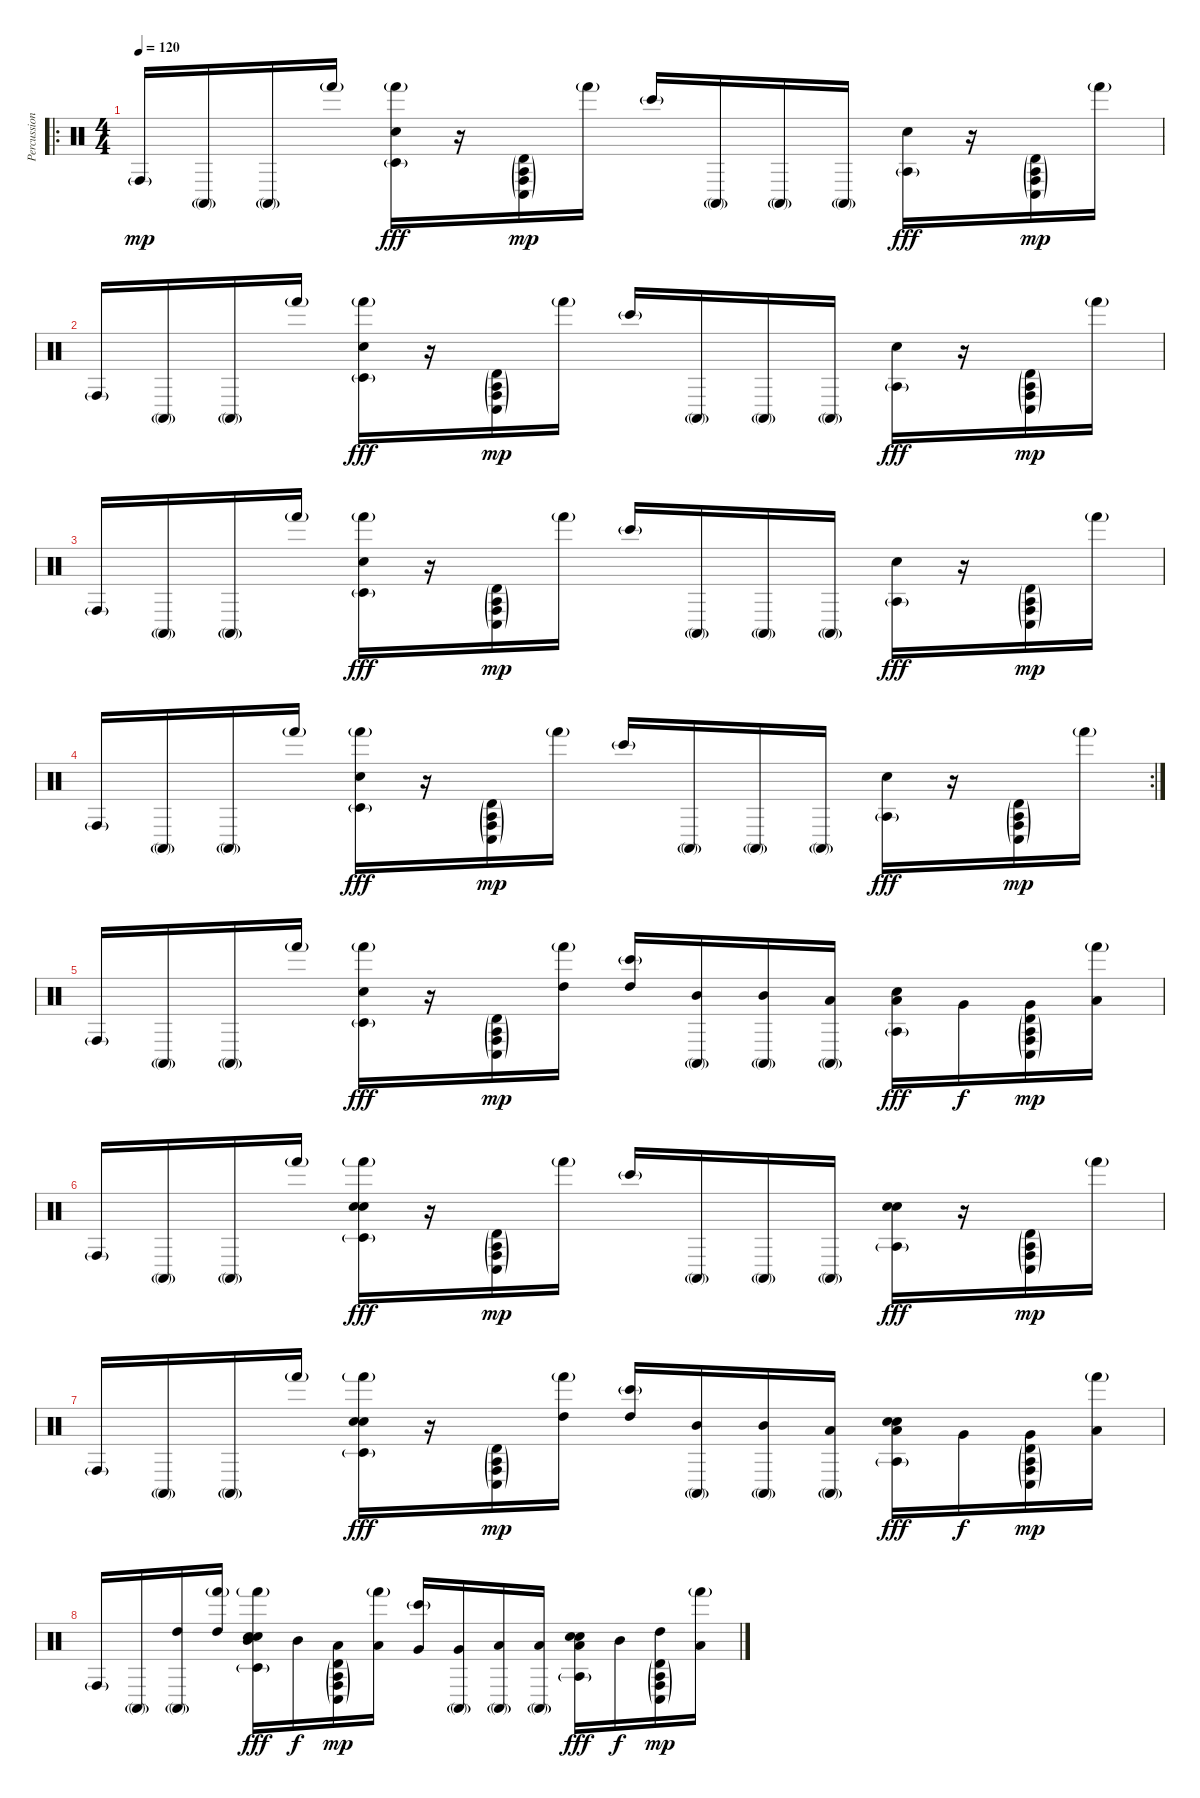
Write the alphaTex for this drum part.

\track ("Percussions" "Percussion") {instrument percussion}
\staff {score}
\articulation defaults
\ro
\ts (4 4)
\tempo 120
\clef neutral
\ks c "Conga high (hit)"{g}.16{dy mp} "Conga high (mute)"{g}.16 "Conga high (mute)"{g}.16 "Hand (hit)"{g}.16
("Hand (hit)"{g} "Timbale low (hit)"{g} "Hand Clap (hit)").16{dy fff} r.16 ("Agogo tow (hit)"{g} "Conga high (hit)"{g} "Conga low (hit)"{g} "Timbale high (hit)"{g}).16{dy mp} "Hand (hit)"{g}.16 "Bongo High (hit)"{g}.16 "Conga high (mute)"{g}.16 "Conga high (mute)"{g}.16 "Conga high (mute)"{g}.16 ("Agogo tow (hit)"{g} "Hand Clap (hit)").16{dy fff} r.16 ("Agogo tow (hit)"{g} "Conga high (hit)"{g} "Conga low (hit)"{g} "Timbale high (hit)"{g}).16{dy mp} "Hand (hit)"{g}.16 |
"Conga high (hit)"{g}.16 "Conga high (mute)"{g}.16 "Conga high (mute)"{g}.16 "Hand (hit)"{g}.16 ("Hand (hit)"{g} "Timbale low (hit)"{g} "Hand Clap (hit)").16{dy fff} r.16 ("Agogo tow (hit)"{g} "Conga high (hit)"{g} "Conga low (hit)"{g} "Timbale high (hit)"{g}).16{dy mp} "Hand (hit)"{g}.16 "Bongo High (hit)"{g}.16 "Conga high (mute)"{g}.16 "Conga high (mute)"{g}.16 "Conga high (mute)"{g}.16 ("Agogo tow (hit)"{g} "Hand Clap (hit)").16{dy fff} r.16 ("Agogo tow (hit)"{g} "Conga high (hit)"{g} "Conga low (hit)"{g} "Timbale high (hit)"{g}).16{dy mp} "Hand (hit)"{g}.16 |
"Conga high (hit)"{g}.16 "Conga high (mute)"{g}.16 "Conga high (mute)"{g}.16 "Hand (hit)"{g}.16 ("Hand (hit)"{g} "Timbale low (hit)"{g} "Hand Clap (hit)").16{dy fff} r.16 ("Agogo tow (hit)"{g} "Conga high (hit)"{g} "Conga low (hit)"{g} "Timbale high (hit)"{g}).16{dy mp} "Hand (hit)"{g}.16 "Bongo High (hit)"{g}.16 "Conga high (mute)"{g}.16 "Conga high (mute)"{g}.16 "Conga high (mute)"{g}.16 ("Agogo tow (hit)"{g} "Hand Clap (hit)").16{dy fff} r.16 ("Agogo tow (hit)"{g} "Conga high (hit)"{g} "Conga low (hit)"{g} "Timbale high (hit)"{g}).16{dy mp} "Hand (hit)"{g}.16 |
\rc 2 "Conga high (hit)"{g}.16 "Conga high (mute)"{g}.16 "Conga high (mute)"{g}.16 "Hand (hit)"{g}.16
("Hand (hit)"{g} "Timbale low (hit)"{g} "Hand Clap (hit)").16{dy fff} r.16 ("Agogo tow (hit)"{g} "Conga high (hit)"{g} "Conga low (hit)"{g} "Timbale high (hit)"{g}).16{dy mp} "Hand (hit)"{g}.16 "Bongo High (hit)"{g}.16 "Conga high (mute)"{g}.16 "Conga high (mute)"{g}.16 "Conga high (mute)"{g}.16 ("Agogo tow (hit)"{g} "Hand Clap (hit)").16{dy fff} r.16 ("Agogo tow (hit)"{g} "Conga high (hit)"{g} "Conga low (hit)"{g} "Timbale high (hit)"{g}).16{dy mp} "Hand (hit)"{g}.16 |
"Conga high (hit)"{g}.16 "Conga high (mute)"{g}.16 "Conga high (mute)"{g}.16 "Hand (hit)"{g}.16 ("Hand (hit)"{g} "Timbale low (hit)"{g} "Hand Clap (hit)").16{dy fff} r.16 ("Agogo tow (hit)"{g} "Conga high (hit)"{g} "Conga low (hit)"{g} "Timbale high (hit)"{g}).16{dy mp} ("Hand (hit)"{g} "High Tom (hit)").16 ("Bongo High (hit)"{g} "High Tom (hit)").16 ("Conga high (mute)"{g} "Mid Tom (hit)").16 ("Conga high (mute)"{g} "Mid Tom (hit)").16 ("Conga high (mute)"{g} "Low Tom (hit)").16 ("Agogo tow (hit)"{g} "Low Tom (hit)" "Hand Clap (hit)").16{dy fff} "Very Low Tom (hit)".16{dy f} ("Agogo tow (hit)"{g} "Conga high (hit)"{g} "Conga low (hit)"{g} "Timbale high (hit)"{g} "Very Low Tom (hit)").16{dy mp} ("Hand (hit)"{g} "Low Floor Tom (hit)").16 |
"Conga high (hit)"{g}.16 "Conga high (mute)"{g}.16 "Conga high (mute)"{g}.16 "Hand (hit)"{g}.16 ("Hand (hit)"{g} "Timbale low (hit)"{g} "Hand Clap (hit)" "Hand Clap (hit)").16{dy fff} r.16 ("Agogo tow (hit)"{g} "Conga high (hit)"{g} "Conga low (hit)"{g} "Timbale high (hit)"{g}).16{dy mp} "Hand (hit)"{g}.16 "Bongo High (hit)"{g}.16 "Conga high (mute)"{g}.16 "Conga high (mute)"{g}.16 "Conga high (mute)"{g}.16 ("Agogo tow (hit)"{g} "Hand Clap (hit)" "Hand Clap (hit)").16{dy fff} r.16 ("Agogo tow (hit)"{g} "Conga high (hit)"{g} "Conga low (hit)"{g} "Timbale high (hit)"{g}).16{dy mp} "Hand (hit)"{g}.16 |
"Conga high (hit)"{g}.16 "Conga high (mute)"{g}.16 "Conga high (mute)"{g}.16 "Hand (hit)"{g}.16 ("Hand (hit)"{g} "Timbale low (hit)"{g} "Hand Clap (hit)" "Hand Clap (hit)").16{dy fff} r.16 ("Agogo tow (hit)"{g} "Conga high (hit)"{g} "Conga low (hit)"{g} "Timbale high (hit)"{g}).16{dy mp} ("Hand (hit)"{g} "High Tom (hit)").16 ("Bongo High (hit)"{g} "High Tom (hit)").16 ("Conga high (mute)"{g} "Mid Tom (hit)").16 ("Conga high (mute)"{g} "Mid Tom (hit)").16 ("Conga high (mute)"{g} "Low Tom (hit)").16 ("Agogo tow (hit)"{g} "Hand Clap (hit)" "Low Tom (hit)" "Hand Clap (hit)").16{dy fff} "Very Low Tom (hit)".16{dy f} ("Agogo tow (hit)"{g} "Conga high (hit)"{g} "Conga low (hit)"{g} "Timbale high (hit)"{g} "Very Low Tom (hit)").16{dy mp} ("Hand (hit)"{g} "Low Floor Tom (hit)").16 |
"Conga high (hit)"{g}.16 "Conga high (mute)"{g}.16 ("Conga high (mute)"{g} "High Tom (hit)").16 ("Hand (hit)"{g} "High Tom (hit)").16 ("Hand (hit)"{g} "Timbale low (hit)"{g} "Hand Clap (hit)" "Mid Tom (hit)" "Hand Clap (hit)").16{dy fff} "Mid Tom (hit)".16{dy f} ("Agogo tow (hit)"{g} "Conga high (hit)"{g} "Conga low (hit)"{g} "Timbale high (hit)"{g} "Low Tom (hit)").16{dy mp} ("Hand (hit)"{g} "Low Tom (hit)").16 ("Bongo High (hit)"{g} "Very Low Tom (hit)").16 ("Conga high (mute)"{g} "Very Low Tom (hit)").16 ("Conga high (mute)"{g} "Low Floor Tom (hit)").16 ("Conga high (mute)"{g} "Low Floor Tom (hit)").16 ("Agogo tow (hit)"{g} "Hand Clap (hit)" "Low Tom (hit)" "Hand Clap (hit)").16{dy fff} "Mid Tom (hit)".16{dy f} ("Agogo tow (hit)"{g} "Conga high (hit)"{g} "Conga low (hit)"{g} "Timbale high (hit)"{g} "High Tom (hit)").16{dy mp} ("Hand (hit)"{g} "Low Floor Tom (hit)").16
